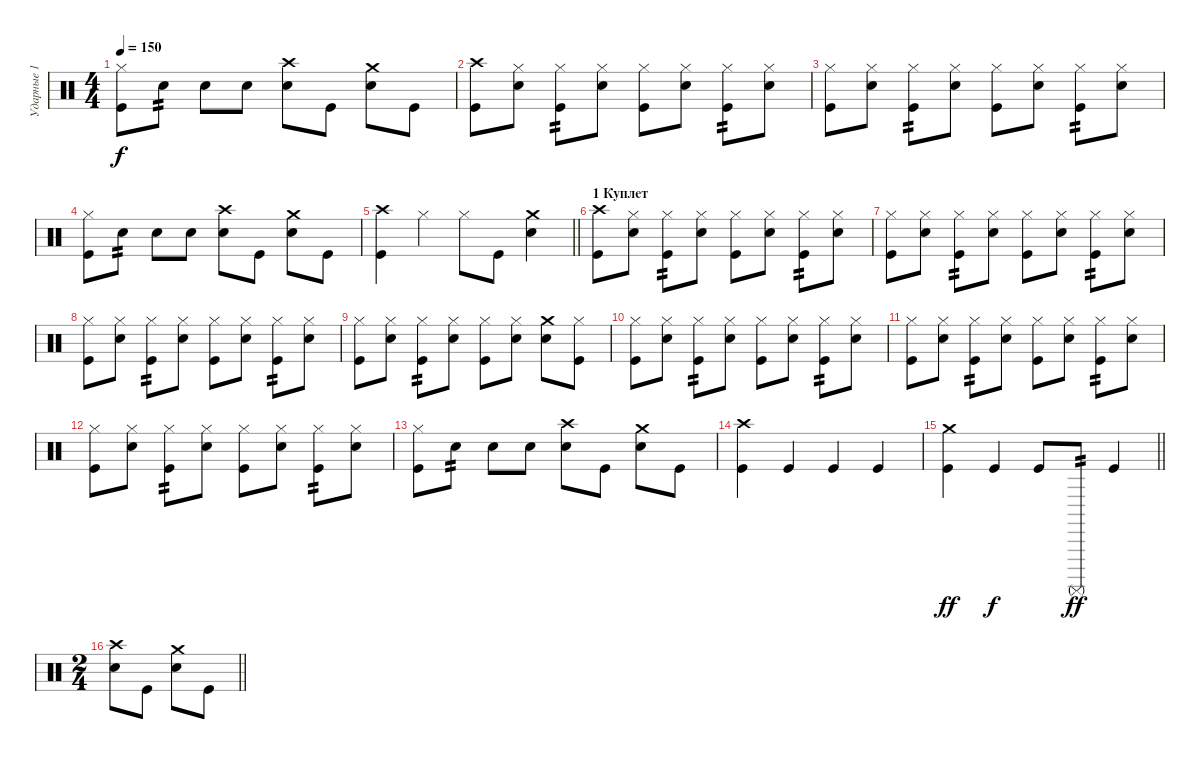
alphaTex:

\track ("Ударные 1" "Ударные 1") {instrument percussion}
\staff {score}
\articulation defaults
\ts (4 4)
\tempo 150
\clef neutral
\ks c
("Hi-Hat (closed)" "Kick (hit)").8{dy f} "Electric Snare (hit)".8{tp 2} "Electric Snare (hit)".8 "Electric Snare (hit)".8 ("Crash high (hit)" "Electric Snare (hit)").8 "Kick (hit)".8 ("Crash medium (hit)" "Electric Snare (hit)").8 "Kick (hit)".8 |
("Crash high (hit)" "Kick (hit)").8 ("Hi-Hat (closed)" "Electric Snare (hit)").8 ("Hi-Hat (closed)" "Kick (hit)").8{tp 2} ("Hi-Hat (closed)" "Electric Snare (hit)").8 ("Hi-Hat (closed)" "Kick (hit)").8 ("Hi-Hat (closed)" "Electric Snare (hit)").8 ("Hi-Hat (closed)" "Kick (hit)").8{tp 2} ("Hi-Hat (closed)" "Electric Snare (hit)").8 |
("Hi-Hat (closed)" "Kick (hit)").8 ("Hi-Hat (closed)" "Electric Snare (hit)").8 ("Hi-Hat (closed)" "Kick (hit)").8{tp 2} ("Hi-Hat (closed)" "Electric Snare (hit)").8 ("Hi-Hat (closed)" "Kick (hit)").8 ("Hi-Hat (closed)" "Electric Snare (hit)").8 ("Hi-Hat (closed)" "Kick (hit)").8{tp 2} ("Hi-Hat (closed)" "Electric Snare (hit)").8 |
("Hi-Hat (closed)" "Kick (hit)").8 "Electric Snare (hit)".8{tp 2} "Electric Snare (hit)".8 "Electric Snare (hit)".8 ("Crash high (hit)" "Electric Snare (hit)").8 "Kick (hit)".8 ("Crash medium (hit)" "Electric Snare (hit)").8 "Kick (hit)".8 |
\barLineRight lightlight
("Crash high (hit)" "Kick (hit)").4 "Hi-Hat (closed)".4 "Hi-Hat (closed)".8 "Kick (hit)".8 ("Crash medium (hit)" "Electric Snare (hit)").4 |
\section ("" "1 Куплет")
("Crash high (hit)" "Kick (hit)").8 ("Hi-Hat (closed)" "Electric Snare (hit)").8 ("Hi-Hat (closed)" "Kick (hit)").8{tp 2} ("Hi-Hat (closed)" "Electric Snare (hit)").8 ("Hi-Hat (closed)" "Kick (hit)").8 ("Hi-Hat (closed)" "Electric Snare (hit)").8 ("Hi-Hat (closed)" "Kick (hit)").8{tp 2} ("Hi-Hat (closed)" "Electric Snare (hit)").8 |
("Hi-Hat (closed)" "Kick (hit)").8 ("Hi-Hat (closed)" "Electric Snare (hit)").8 ("Hi-Hat (closed)" "Kick (hit)").8{tp 2} ("Hi-Hat (closed)" "Electric Snare (hit)").8 ("Hi-Hat (closed)" "Kick (hit)").8 ("Hi-Hat (closed)" "Electric Snare (hit)").8 ("Hi-Hat (closed)" "Kick (hit)").8{tp 2} ("Hi-Hat (closed)" "Electric Snare (hit)").8 |
("Hi-Hat (closed)" "Kick (hit)").8 ("Hi-Hat (closed)" "Electric Snare (hit)").8 ("Hi-Hat (closed)" "Kick (hit)").8{tp 2} ("Hi-Hat (closed)" "Electric Snare (hit)").8 ("Hi-Hat (closed)" "Kick (hit)").8 ("Hi-Hat (closed)" "Electric Snare (hit)").8 ("Hi-Hat (closed)" "Kick (hit)").8{tp 2} ("Hi-Hat (closed)" "Electric Snare (hit)").8 |
("Hi-Hat (closed)" "Kick (hit)").8 ("Hi-Hat (closed)" "Electric Snare (hit)").8 ("Hi-Hat (closed)" "Kick (hit)").8{tp 2} ("Hi-Hat (closed)" "Electric Snare (hit)").8 ("Hi-Hat (closed)" "Kick (hit)").8 ("Hi-Hat (closed)" "Electric Snare (hit)").8 ("Crash medium (hit)" "Electric Snare (hit)").8 ("Hi-Hat (closed)" "Kick (hit)").8 |
("Hi-Hat (closed)" "Kick (hit)").8 ("Hi-Hat (closed)" "Electric Snare (hit)").8 ("Hi-Hat (closed)" "Kick (hit)").8{tp 2} ("Hi-Hat (closed)" "Electric Snare (hit)").8 ("Hi-Hat (closed)" "Kick (hit)").8 ("Hi-Hat (closed)" "Electric Snare (hit)").8 ("Hi-Hat (closed)" "Kick (hit)").8{tp 2} ("Hi-Hat (closed)" "Electric Snare (hit)").8 |
("Hi-Hat (closed)" "Kick (hit)").8 ("Hi-Hat (closed)" "Electric Snare (hit)").8 ("Hi-Hat (closed)" "Kick (hit)").8{tp 2} ("Hi-Hat (closed)" "Electric Snare (hit)").8 ("Hi-Hat (closed)" "Kick (hit)").8 ("Hi-Hat (closed)" "Electric Snare (hit)").8 ("Hi-Hat (closed)" "Kick (hit)").8{tp 2} ("Hi-Hat (closed)" "Electric Snare (hit)").8 |
("Hi-Hat (closed)" "Kick (hit)").8 ("Hi-Hat (closed)" "Electric Snare (hit)").8 ("Hi-Hat (closed)" "Kick (hit)").8{tp 2} ("Hi-Hat (closed)" "Electric Snare (hit)").8 ("Hi-Hat (closed)" "Kick (hit)").8 ("Hi-Hat (closed)" "Electric Snare (hit)").8 ("Hi-Hat (closed)" "Kick (hit)").8{tp 2} ("Hi-Hat (closed)" "Electric Snare (hit)").8 |
("Hi-Hat (closed)" "Kick (hit)").8 "Electric Snare (hit)".8{tp 2} "Electric Snare (hit)".8 "Electric Snare (hit)".8 ("Crash high (hit)" "Electric Snare (hit)").8 "Kick (hit)".8 ("Crash medium (hit)" "Electric Snare (hit)").8 "Kick (hit)".8 |
("Crash high (hit)" "Kick (hit)").4 "Kick (hit)".4 "Kick (hit)".4 "Kick (hit)".4 |
\barLineRight lightlight
("Crash medium (hit)" "Kick (hit)").4{dy ff} "Kick (hit)".4{dy f} "Kick (hit)".8 "Surdo (mute)".8{tp 2 dy ff} "Kick (hit)".4 |
\ts (2 4)
\barLineRight lightlight
("Crash high (hit)" "Electric Snare (hit)").8 "Kick (hit)".8 ("Crash medium (hit)" "Electric Snare (hit)").8 "Kick (hit)".8
